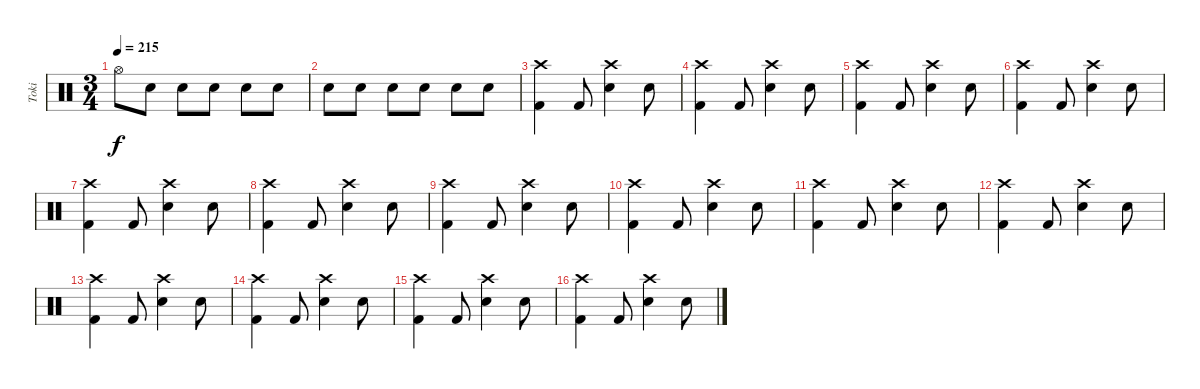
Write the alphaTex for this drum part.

\track ("Toki" "Toki") {instrument percussion}
\staff {score}
\articulation defaults
\ts (3 4)
\section ("" "")
\tempo 215
\clef neutral
\ks c "Hi-Hat (open)".8{dy f} "Snare (hit) 2".8 "Snare (hit) 2".8 "Snare (hit) 2".8 "Snare (hit) 2".8 "Snare (hit) 2".8
|
"Snare (hit) 2".8 "Snare (hit) 2".8 "Snare (hit) 2".8 "Snare (hit) 2".8 "Snare (hit) 2".8 "Snare (hit) 2".8 |
("Kick (hit) 2" "Crash high (hit)").4 "Kick (hit) 2".8 ("Crash high (hit)" "Snare (hit) 2").4 "Snare (hit) 2".8 |
("Kick (hit) 2" "Crash high (hit)").4 "Kick (hit) 2".8 ("Crash high (hit)" "Snare (hit) 2").4 "Snare (hit) 2".8 |
("Kick (hit) 2" "Crash high (hit)").4 "Kick (hit) 2".8 ("Crash high (hit)" "Snare (hit) 2").4 "Snare (hit) 2".8 |
("Kick (hit) 2" "Crash high (hit)").4 "Kick (hit) 2".8 ("Crash high (hit)" "Snare (hit) 2").4 "Snare (hit) 2".8 |
("Kick (hit) 2" "Crash high (hit)").4 "Kick (hit) 2".8 ("Crash high (hit)" "Snare (hit) 2").4 "Snare (hit) 2".8 |
("Kick (hit) 2" "Crash high (hit)").4 "Kick (hit) 2".8 ("Crash high (hit)" "Snare (hit) 2").4 "Snare (hit) 2".8 |
("Kick (hit) 2" "Crash high (hit)").4 "Kick (hit) 2".8 ("Crash high (hit)" "Snare (hit) 2").4 "Snare (hit) 2".8 |
("Kick (hit) 2" "Crash high (hit)").4 "Kick (hit) 2".8 ("Crash high (hit)" "Snare (hit) 2").4 "Snare (hit) 2".8 |
("Kick (hit) 2" "Crash high (hit)").4 "Kick (hit) 2".8 ("Crash high (hit)" "Snare (hit) 2").4 "Snare (hit) 2".8 |
("Kick (hit) 2" "Crash high (hit)").4 "Kick (hit) 2".8 ("Crash high (hit)" "Snare (hit) 2").4 "Snare (hit) 2".8 |
("Kick (hit) 2" "Crash high (hit)").4 "Kick (hit) 2".8 ("Crash high (hit)" "Snare (hit) 2").4 "Snare (hit) 2".8 |
("Kick (hit) 2" "Crash high (hit)").4 "Kick (hit) 2".8 ("Crash high (hit)" "Snare (hit) 2").4 "Snare (hit) 2".8 |
("Kick (hit) 2" "Crash high (hit)").4 "Kick (hit) 2".8 ("Crash high (hit)" "Snare (hit) 2").4 "Snare (hit) 2".8 |
("Kick (hit) 2" "Crash high (hit)").4 "Kick (hit) 2".8 ("Crash high (hit)" "Snare (hit) 2").4 "Snare (hit) 2".8
